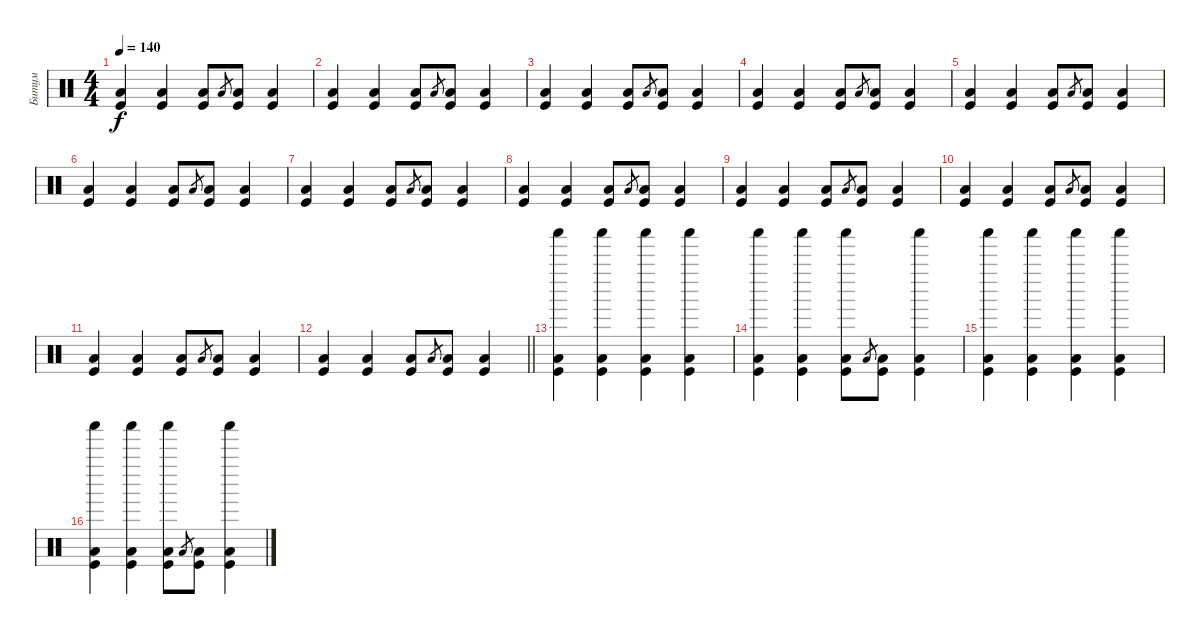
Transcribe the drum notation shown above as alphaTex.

\track ("Битум" "Битум") {instrument percussion}
\staff {score}
\articulation defaults
\ts (4 4)
\tempo 140
\clef neutral
\ks c
("Low Floor Tom (hit)" "Kick (hit)").4{dy f} ("Low Floor Tom (hit)" "Kick (hit)").4 ("Low Floor Tom (hit)" "Kick (hit)").8 "Low Floor Tom (hit)".8{gr} ("Low Floor Tom (hit)" "Kick (hit)").8 ("Low Floor Tom (hit)" "Kick (hit)").4 |
("Low Floor Tom (hit)" "Kick (hit)").4 ("Low Floor Tom (hit)" "Kick (hit)").4 ("Low Floor Tom (hit)" "Kick (hit)").8 "Low Floor Tom (hit)".8{gr} ("Low Floor Tom (hit)" "Kick (hit)").8 ("Low Floor Tom (hit)" "Kick (hit)").4 |
("Low Floor Tom (hit)" "Kick (hit)").4 ("Low Floor Tom (hit)" "Kick (hit)").4 ("Low Floor Tom (hit)" "Kick (hit)").8 "Low Floor Tom (hit)".8{gr} ("Low Floor Tom (hit)" "Kick (hit)").8 ("Low Floor Tom (hit)" "Kick (hit)").4 |
("Low Floor Tom (hit)" "Kick (hit)").4 ("Low Floor Tom (hit)" "Kick (hit)").4 ("Low Floor Tom (hit)" "Kick (hit)").8 "Low Floor Tom (hit)".8{gr} ("Low Floor Tom (hit)" "Kick (hit)").8 ("Low Floor Tom (hit)" "Kick (hit)").4 |
("Low Floor Tom (hit)" "Kick (hit)").4 ("Low Floor Tom (hit)" "Kick (hit)").4 ("Low Floor Tom (hit)" "Kick (hit)").8 "Low Floor Tom (hit)".8{gr} ("Low Floor Tom (hit)" "Kick (hit)").8 ("Low Floor Tom (hit)" "Kick (hit)").4 |
("Low Floor Tom (hit)" "Kick (hit)").4 ("Low Floor Tom (hit)" "Kick (hit)").4 ("Low Floor Tom (hit)" "Kick (hit)").8 "Low Floor Tom (hit)".8{gr} ("Low Floor Tom (hit)" "Kick (hit)").8 ("Low Floor Tom (hit)" "Kick (hit)").4 |
("Low Floor Tom (hit)" "Kick (hit)").4 ("Low Floor Tom (hit)" "Kick (hit)").4 ("Low Floor Tom (hit)" "Kick (hit)").8 "Low Floor Tom (hit)".8{gr} ("Low Floor Tom (hit)" "Kick (hit)").8 ("Low Floor Tom (hit)" "Kick (hit)").4 |
("Low Floor Tom (hit)" "Kick (hit)").4 ("Low Floor Tom (hit)" "Kick (hit)").4 ("Low Floor Tom (hit)" "Kick (hit)").8 "Low Floor Tom (hit)".8{gr} ("Low Floor Tom (hit)" "Kick (hit)").8 ("Low Floor Tom (hit)" "Kick (hit)").4 |
("Low Floor Tom (hit)" "Kick (hit)").4 ("Low Floor Tom (hit)" "Kick (hit)").4 ("Low Floor Tom (hit)" "Kick (hit)").8 "Low Floor Tom (hit)".8{gr} ("Low Floor Tom (hit)" "Kick (hit)").8 ("Low Floor Tom (hit)" "Kick (hit)").4 |
("Low Floor Tom (hit)" "Kick (hit)").4 ("Low Floor Tom (hit)" "Kick (hit)").4 ("Low Floor Tom (hit)" "Kick (hit)").8 "Low Floor Tom (hit)".8{gr} ("Low Floor Tom (hit)" "Kick (hit)").8 ("Low Floor Tom (hit)" "Kick (hit)").4 |
("Low Floor Tom (hit)" "Kick (hit)").4 ("Low Floor Tom (hit)" "Kick (hit)").4 ("Low Floor Tom (hit)" "Kick (hit)").8 "Low Floor Tom (hit)".8{gr} ("Low Floor Tom (hit)" "Kick (hit)").8 ("Low Floor Tom (hit)" "Kick (hit)").4 |
\barLineRight lightlight
("Low Floor Tom (hit)" "Kick (hit)").4 ("Low Floor Tom (hit)" "Kick (hit)").4 ("Low Floor Tom (hit)" "Kick (hit)").8 "Low Floor Tom (hit)".8{gr} ("Low Floor Tom (hit)" "Kick (hit)").8 ("Low Floor Tom (hit)" "Kick (hit)").4 |
("Shaker (hit)" "Low Floor Tom (hit)" "Kick (hit)").4 ("Shaker (hit)" "Low Floor Tom (hit)" "Kick (hit)").4 ("Shaker (hit)" "Low Floor Tom (hit)" "Kick (hit)").4 ("Shaker (hit)" "Low Floor Tom (hit)" "Kick (hit)").4 |
("Shaker (hit)" "Low Floor Tom (hit)" "Kick (hit)").4 ("Shaker (hit)" "Low Floor Tom (hit)" "Kick (hit)").4 ("Shaker (hit)" "Low Floor Tom (hit)" "Kick (hit)").8 "Low Floor Tom (hit)".8{gr} ("Low Floor Tom (hit)" "Kick (hit)").8 ("Shaker (hit)" "Low Floor Tom (hit)" "Kick (hit)").4 |
("Shaker (hit)" "Low Floor Tom (hit)" "Kick (hit)").4 ("Shaker (hit)" "Low Floor Tom (hit)" "Kick (hit)").4 ("Shaker (hit)" "Low Floor Tom (hit)" "Kick (hit)").4 ("Shaker (hit)" "Low Floor Tom (hit)" "Kick (hit)").4 |
("Shaker (hit)" "Low Floor Tom (hit)" "Kick (hit)").4 ("Shaker (hit)" "Low Floor Tom (hit)" "Kick (hit)").4 ("Shaker (hit)" "Low Floor Tom (hit)" "Kick (hit)").8 "Low Floor Tom (hit)".8{gr} ("Low Floor Tom (hit)" "Kick (hit)").8 ("Shaker (hit)" "Low Floor Tom (hit)" "Kick (hit)").4
